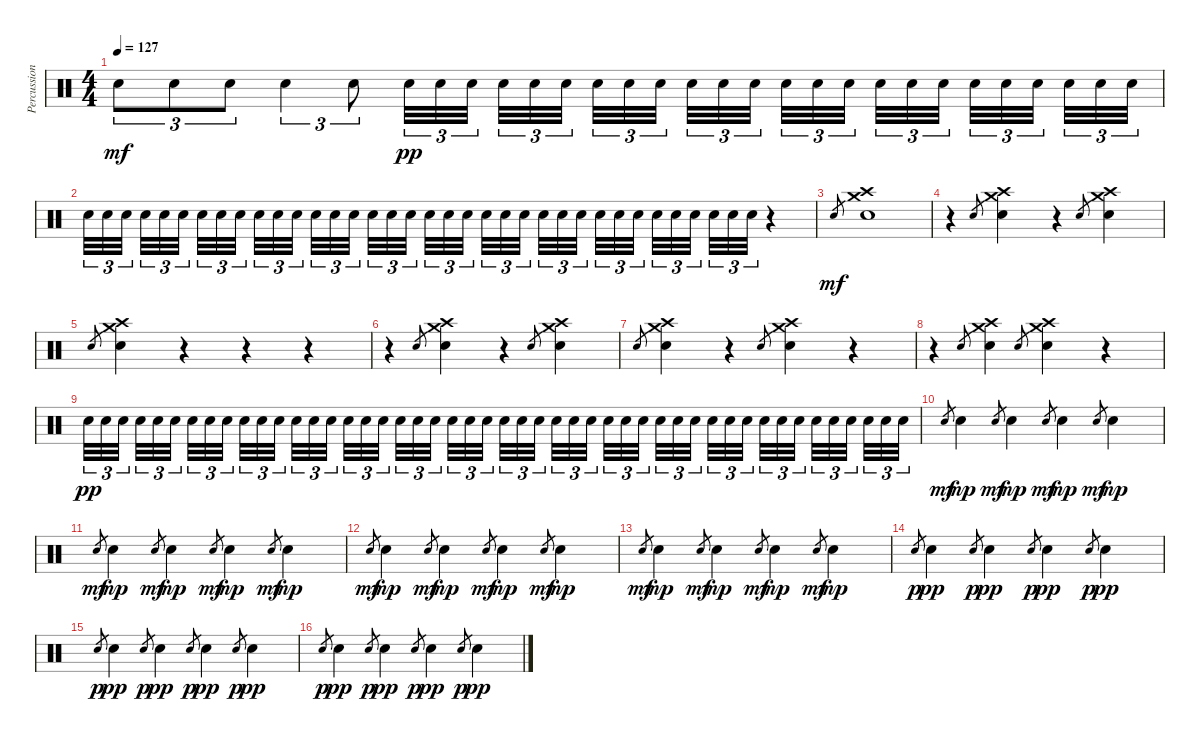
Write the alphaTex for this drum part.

\track ("Percussion" "Percussion") {instrument percussion}
\staff {score}
\articulation defaults
\ts (4 4)
\tempo 127
\clef neutral
\ks c "Electric Snare (hit)".8{tu (3 2) dy mf} "Electric Snare (hit)".8{tu (3 2)} "Electric Snare (hit)".8{tu (3 2)} "Electric Snare (hit)".4{tu (3 2)} "Electric Snare (hit)".8{tu (3 2)} "Electric Snare (hit)".32{tu (3 2) dy pp} "Electric Snare (hit)".32{tu (3 2)} "Electric Snare (hit)".32{tu (3 2) beam splitsecondary} "Electric Snare (hit)".32{tu (3 2)} "Electric Snare (hit)".32{tu (3 2)} "Electric Snare (hit)".32{tu (3 2) beam splitsecondary} "Electric Snare (hit)".32{tu (3 2)} "Electric Snare (hit)".32{tu (3 2)} "Electric Snare (hit)".32{tu (3 2) beam splitsecondary} "Electric Snare (hit)".32{tu (3 2)} "Electric Snare (hit)".32{tu (3 2)} "Electric Snare (hit)".32{tu (3 2)} "Electric Snare (hit)".32{tu (3 2)} "Electric Snare (hit)".32{tu (3 2)} "Electric Snare (hit)".32{tu (3 2) beam splitsecondary} "Electric Snare (hit)".32{tu (3 2)} "Electric Snare (hit)".32{tu (3 2)} "Electric Snare (hit)".32{tu (3 2) beam splitsecondary} "Electric Snare (hit)".32{tu (3 2)} "Electric Snare (hit)".32{tu (3 2)} "Electric Snare (hit)".32{tu (3 2) beam splitsecondary} "Electric Snare (hit)".32{tu (3 2)} "Electric Snare (hit)".32{tu (3 2)} "Electric Snare (hit)".32{tu (3 2)}
|
"Electric Snare (hit)".32{tu (3 2)} "Electric Snare (hit)".32{tu (3 2)} "Electric Snare (hit)".32{tu (3 2) beam splitsecondary} "Electric Snare (hit)".32{tu (3 2)} "Electric Snare (hit)".32{tu (3 2)} "Electric Snare (hit)".32{tu (3 2) beam splitsecondary} "Electric Snare (hit)".32{tu (3 2)} "Electric Snare (hit)".32{tu (3 2)} "Electric Snare (hit)".32{tu (3 2) beam splitsecondary} "Electric Snare (hit)".32{tu (3 2)} "Electric Snare (hit)".32{tu (3 2)} "Electric Snare (hit)".32{tu (3 2)} "Electric Snare (hit)".32{tu (3 2)} "Electric Snare (hit)".32{tu (3 2)} "Electric Snare (hit)".32{tu (3 2) beam splitsecondary} "Electric Snare (hit)".32{tu (3 2)} "Electric Snare (hit)".32{tu (3 2)} "Electric Snare (hit)".32{tu (3 2) beam splitsecondary} "Electric Snare (hit)".32{tu (3 2)} "Electric Snare (hit)".32{tu (3 2)} "Electric Snare (hit)".32{tu (3 2) beam splitsecondary} "Electric Snare (hit)".32{tu (3 2)} "Electric Snare (hit)".32{tu (3 2)} "Electric Snare (hit)".32{tu (3 2)} "Electric Snare (hit)".32{tu (3 2)} "Electric Snare (hit)".32{tu (3 2)} "Electric Snare (hit)".32{tu (3 2) beam splitsecondary} "Electric Snare (hit)".32{tu (3 2)} "Electric Snare (hit)".32{tu (3 2)} "Electric Snare (hit)".32{tu (3 2) beam splitsecondary} "Electric Snare (hit)".32{tu (3 2)} "Electric Snare (hit)".32{tu (3 2)} "Electric Snare (hit)".32{tu (3 2) beam splitsecondary} "Electric Snare (hit)".32{tu (3 2)} "Electric Snare (hit)".32{tu (3 2)} "Electric Snare (hit)".32{tu (3 2)} r.4 |
"Electric Snare (hit)".8{gr dy mf} ("Crash high (hit)" "Crash medium (hit)" "Electric Snare (hit)").1 |
r.4 "Electric Snare (hit)".8{gr} ("Crash high (hit)" "Crash medium (hit)" "Electric Snare (hit)").4 r.4 "Electric Snare (hit)".8{gr} ("Crash high (hit)" "Crash medium (hit)" "Electric Snare (hit)").4 |
"Electric Snare (hit)".8{gr} ("Crash high (hit)" "Crash medium (hit)" "Electric Snare (hit)").4 r.4 r.4 r.4 |
r.4 "Electric Snare (hit)".8{gr} ("Crash high (hit)" "Crash medium (hit)" "Electric Snare (hit)").4 r.4 "Electric Snare (hit)".8{gr} ("Crash high (hit)" "Crash medium (hit)" "Electric Snare (hit)").4 |
"Electric Snare (hit)".8{gr} ("Crash high (hit)" "Crash medium (hit)" "Electric Snare (hit)").4 r.4 "Electric Snare (hit)".8{gr} ("Crash high (hit)" "Crash medium (hit)" "Electric Snare (hit)").4 r.4 |
r.4 "Electric Snare (hit)".8{gr} ("Crash high (hit)" "Crash medium (hit)" "Electric Snare (hit)").4 "Electric Snare (hit)".8{gr} ("Crash high (hit)" "Crash medium (hit)" "Electric Snare (hit)").4 r.4 |
"Electric Snare (hit)".32{tu (3 2) dy pp} "Electric Snare (hit)".32{tu (3 2)} "Electric Snare (hit)".32{tu (3 2) beam splitsecondary} "Electric Snare (hit)".32{tu (3 2)} "Electric Snare (hit)".32{tu (3 2)} "Electric Snare (hit)".32{tu (3 2) beam splitsecondary} "Electric Snare (hit)".32{tu (3 2)} "Electric Snare (hit)".32{tu (3 2)} "Electric Snare (hit)".32{tu (3 2) beam splitsecondary} "Electric Snare (hit)".32{tu (3 2)} "Electric Snare (hit)".32{tu (3 2)} "Electric Snare (hit)".32{tu (3 2)} "Electric Snare (hit)".32{tu (3 2)} "Electric Snare (hit)".32{tu (3 2)} "Electric Snare (hit)".32{tu (3 2) beam splitsecondary} "Electric Snare (hit)".32{tu (3 2)} "Electric Snare (hit)".32{tu (3 2)} "Electric Snare (hit)".32{tu (3 2) beam splitsecondary} "Electric Snare (hit)".32{tu (3 2)} "Electric Snare (hit)".32{tu (3 2)} "Electric Snare (hit)".32{tu (3 2) beam splitsecondary} "Electric Snare (hit)".32{tu (3 2)} "Electric Snare (hit)".32{tu (3 2)} "Electric Snare (hit)".32{tu (3 2)} "Electric Snare (hit)".32{tu (3 2)} "Electric Snare (hit)".32{tu (3 2)} "Electric Snare (hit)".32{tu (3 2) beam splitsecondary} "Electric Snare (hit)".32{tu (3 2)} "Electric Snare (hit)".32{tu (3 2)} "Electric Snare (hit)".32{tu (3 2) beam splitsecondary} "Electric Snare (hit)".32{tu (3 2)} "Electric Snare (hit)".32{tu (3 2)} "Electric Snare (hit)".32{tu (3 2) beam splitsecondary} "Electric Snare (hit)".32{tu (3 2)} "Electric Snare (hit)".32{tu (3 2)} "Electric Snare (hit)".32{tu (3 2)} "Electric Snare (hit)".32{tu (3 2)} "Electric Snare (hit)".32{tu (3 2)} "Electric Snare (hit)".32{tu (3 2) beam splitsecondary} "Electric Snare (hit)".32{tu (3 2)} "Electric Snare (hit)".32{tu (3 2)} "Electric Snare (hit)".32{tu (3 2) beam splitsecondary} "Electric Snare (hit)".32{tu (3 2)} "Electric Snare (hit)".32{tu (3 2)} "Electric Snare (hit)".32{tu (3 2) beam splitsecondary} "Electric Snare (hit)".32{tu (3 2)} "Electric Snare (hit)".32{tu (3 2)} "Electric Snare (hit)".32{tu (3 2)} |
"Electric Snare (hit)".8{gr dy mf} "Electric Snare (hit)".4{dy mp} "Electric Snare (hit)".8{gr dy mf} "Electric Snare (hit)".4{dy mp} "Electric Snare (hit)".8{gr dy mf} "Electric Snare (hit)".4{dy mp} "Electric Snare (hit)".8{gr dy mf} "Electric Snare (hit)".4{dy mp} |
"Electric Snare (hit)".8{gr dy mf} "Electric Snare (hit)".4{dy mp} "Electric Snare (hit)".8{gr dy mf} "Electric Snare (hit)".4{dy mp} "Electric Snare (hit)".8{gr dy mf} "Electric Snare (hit)".4{dy mp} "Electric Snare (hit)".8{gr dy mf} "Electric Snare (hit)".4{dy mp} |
"Electric Snare (hit)".8{gr dy mf} "Electric Snare (hit)".4{dy mp} "Electric Snare (hit)".8{gr dy mf} "Electric Snare (hit)".4{dy mp} "Electric Snare (hit)".8{gr dy mf} "Electric Snare (hit)".4{dy mp} "Electric Snare (hit)".8{gr dy mf} "Electric Snare (hit)".4{dy mp} |
"Electric Snare (hit)".8{gr dy mf} "Electric Snare (hit)".4{dy mp} "Electric Snare (hit)".8{gr dy mf} "Electric Snare (hit)".4{dy mp} "Electric Snare (hit)".8{gr dy mf} "Electric Snare (hit)".4{dy mp} "Electric Snare (hit)".8{gr dy mf} "Electric Snare (hit)".4{dy mp} |
"Electric Snare (hit)".8{gr dy p} "Electric Snare (hit)".4{dy pp} "Electric Snare (hit)".8{gr dy p} "Electric Snare (hit)".4{dy pp} "Electric Snare (hit)".8{gr dy p} "Electric Snare (hit)".4{dy pp} "Electric Snare (hit)".8{gr dy p} "Electric Snare (hit)".4{dy pp} |
"Electric Snare (hit)".8{gr dy p} "Electric Snare (hit)".4{dy pp} "Electric Snare (hit)".8{gr dy p} "Electric Snare (hit)".4{dy pp} "Electric Snare (hit)".8{gr dy p} "Electric Snare (hit)".4{dy pp} "Electric Snare (hit)".8{gr dy p} "Electric Snare (hit)".4{dy pp} |
"Electric Snare (hit)".8{gr dy p} "Electric Snare (hit)".4{dy pp} "Electric Snare (hit)".8{gr dy p} "Electric Snare (hit)".4{dy pp} "Electric Snare (hit)".8{gr dy p} "Electric Snare (hit)".4{dy pp} "Electric Snare (hit)".8{gr dy p} "Electric Snare (hit)".4{dy pp}
